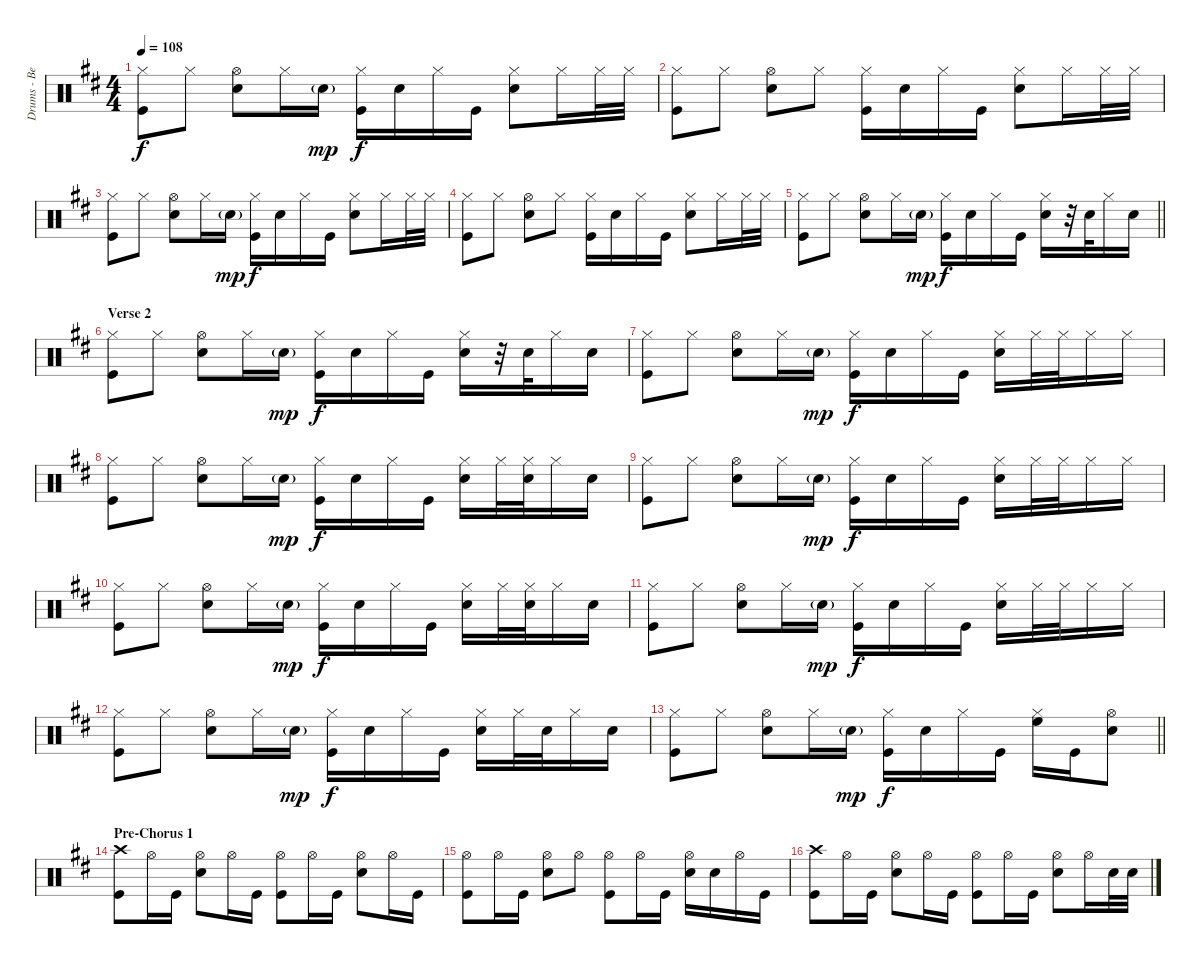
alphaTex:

\track ("Drums - Ben Johnston" "Drums - Be") {instrument percussion}
\staff {score}
\articulation defaults
\ts (4 4)
\tempo 108
\clef neutral
\ks d
("Hi-Hat (closed)" "Kick (hit)").8{dy f} "Hi-Hat (closed)".8 ("Hi-Hat (open)" "Snare (hit) 2").8 "Hi-Hat (closed)".16 "Snare (hit) 2"{g}.16{dy mp} ("Hi-Hat (closed)" "Kick (hit)").16{dy f} "Snare (hit) 2".16 "Hi-Hat (closed)".16 "Kick (hit)".16 ("Hi-Hat (closed)" "Snare (hit) 2").8 "Hi-Hat (closed)".16 "Hi-Hat (closed)".32 "Hi-Hat (closed)".32 |
("Hi-Hat (closed)" "Kick (hit)").8 "Hi-Hat (closed)".8 ("Hi-Hat (open)" "Snare (hit) 2").8 "Hi-Hat (closed)".8 ("Hi-Hat (closed)" "Kick (hit)").16 "Snare (hit) 2".16 "Hi-Hat (closed)".16 "Kick (hit)".16 ("Hi-Hat (closed)" "Snare (hit) 2").8 "Hi-Hat (closed)".16 "Hi-Hat (closed)".32 "Hi-Hat (closed)".32 |
("Hi-Hat (closed)" "Kick (hit)").8 "Hi-Hat (closed)".8 ("Hi-Hat (open)" "Snare (hit) 2").8 "Hi-Hat (closed)".16 "Snare (hit) 2"{g}.16{dy mp} ("Hi-Hat (closed)" "Kick (hit)").16{dy f} "Snare (hit) 2".16 "Hi-Hat (closed)".16 "Kick (hit)".16 ("Hi-Hat (closed)" "Snare (hit) 2").8 "Hi-Hat (closed)".16 "Hi-Hat (closed)".32 "Hi-Hat (closed)".32 |
("Hi-Hat (closed)" "Kick (hit)").8 "Hi-Hat (closed)".8 ("Hi-Hat (open)" "Snare (hit) 2").8 "Hi-Hat (closed)".8 ("Hi-Hat (closed)" "Kick (hit)").16 "Snare (hit) 2".16 "Hi-Hat (closed)".16 "Kick (hit)".16 ("Hi-Hat (closed)" "Snare (hit) 2").8 "Hi-Hat (closed)".16 "Hi-Hat (closed)".32 "Hi-Hat (closed)".32 |
\barLineRight lightlight
("Hi-Hat (closed)" "Kick (hit)").8 "Hi-Hat (closed)".8 ("Hi-Hat (open)" "Snare (hit) 2").8 "Hi-Hat (closed)".16 "Snare (hit) 2"{g}.16{dy mp} ("Hi-Hat (closed)" "Kick (hit)").16{dy f} "Snare (hit) 2".16 "Hi-Hat (closed)".16 "Kick (hit)".16 ("Hi-Hat (closed)" "Snare (hit) 2").16 r.32 "Snare (hit) 2".32 "Hi-Hat (closed)".16 "Snare (hit) 2".16 |
\section ("" "Verse 2")
("Hi-Hat (closed)" "Kick (hit)").8 "Hi-Hat (closed)".8 ("Hi-Hat (open)" "Snare (hit) 2").8 "Hi-Hat (closed)".16 "Snare (hit) 2"{g}.16{dy mp} ("Hi-Hat (closed)" "Kick (hit)").16{dy f} "Snare (hit) 2".16 "Hi-Hat (closed)".16 "Kick (hit)".16 ("Hi-Hat (closed)" "Snare (hit) 2").16 r.32 "Snare (hit) 2".32 "Hi-Hat (closed)".16 "Snare (hit) 2".16 |
("Hi-Hat (closed)" "Kick (hit)").8 "Hi-Hat (closed)".8 ("Hi-Hat (open)" "Snare (hit) 2").8 "Hi-Hat (closed)".16 "Snare (hit) 2"{g}.16{dy mp} ("Hi-Hat (closed)" "Kick (hit)").16{dy f} "Snare (hit) 2".16 "Hi-Hat (closed)".16 "Kick (hit)".16 ("Hi-Hat (closed)" "Snare (hit) 2").16 "Hi-Hat (closed)".32 "Hi-Hat (closed)".32 "Hi-Hat (closed)".16 "Hi-Hat (closed)".16 |
("Hi-Hat (closed)" "Kick (hit)").8 "Hi-Hat (closed)".8 ("Hi-Hat (open)" "Snare (hit) 2").8 "Hi-Hat (closed)".16 "Snare (hit) 2"{g}.16{dy mp} ("Hi-Hat (closed)" "Kick (hit)").16{dy f} "Snare (hit) 2".16 "Hi-Hat (closed)".16 "Kick (hit)".16 ("Hi-Hat (closed)" "Snare (hit) 2").16 "Hi-Hat (closed)".32 ("Hi-Hat (closed)" "Snare (hit) 2").32 "Hi-Hat (closed)".16 "Snare (hit) 2".16 |
("Hi-Hat (closed)" "Kick (hit)").8 "Hi-Hat (closed)".8 ("Hi-Hat (open)" "Snare (hit) 2").8 "Hi-Hat (closed)".16 "Snare (hit) 2"{g}.16{dy mp} ("Hi-Hat (closed)" "Kick (hit)").16{dy f} "Snare (hit) 2".16 "Hi-Hat (closed)".16 "Kick (hit)".16 ("Hi-Hat (closed)" "Snare (hit) 2").16 "Hi-Hat (closed)".32 "Hi-Hat (closed)".32 "Hi-Hat (closed)".16 "Hi-Hat (closed)".16 |
("Hi-Hat (closed)" "Kick (hit)").8 "Hi-Hat (closed)".8 ("Hi-Hat (open)" "Snare (hit) 2").8 "Hi-Hat (closed)".16 "Snare (hit) 2"{g}.16{dy mp} ("Hi-Hat (closed)" "Kick (hit)").16{dy f} "Snare (hit) 2".16 "Hi-Hat (closed)".16 "Kick (hit)".16 ("Hi-Hat (closed)" "Snare (hit) 2").16 "Hi-Hat (closed)".32 ("Hi-Hat (closed)" "Snare (hit) 2").32 "Hi-Hat (closed)".16 "Snare (hit) 2".16 |
("Hi-Hat (closed)" "Kick (hit)").8 "Hi-Hat (closed)".8 ("Hi-Hat (open)" "Snare (hit) 2").8 "Hi-Hat (closed)".16 "Snare (hit) 2"{g}.16{dy mp} ("Hi-Hat (closed)" "Kick (hit)").16{dy f} "Snare (hit) 2".16 "Hi-Hat (closed)".16 "Kick (hit)".16 ("Hi-Hat (closed)" "Snare (hit) 2").16 "Hi-Hat (closed)".32 "Hi-Hat (closed)".32 "Hi-Hat (closed)".16 "Hi-Hat (closed)".16 |
("Hi-Hat (closed)" "Kick (hit)").8 "Hi-Hat (closed)".8 ("Hi-Hat (open)" "Snare (hit) 2").8 "Hi-Hat (closed)".16 "Snare (hit) 2"{g}.16{dy mp} ("Hi-Hat (closed)" "Kick (hit)").16{dy f} "Snare (hit) 2".16 "Hi-Hat (closed)".16 "Kick (hit)".16 ("Hi-Hat (closed)" "Snare (hit) 2").16 "Hi-Hat (closed)".32 "Snare (hit) 2".32 "Hi-Hat (closed)".16 "Snare (hit) 2".16 |
\barLineRight lightlight
("Hi-Hat (closed)" "Kick (hit)").8 "Hi-Hat (closed)".8 ("Hi-Hat (open)" "Snare (hit) 2").8 "Hi-Hat (closed)".16 "Snare (hit) 2"{g}.16{dy mp} ("Hi-Hat (closed)" "Kick (hit)").16{dy f} "Snare (hit) 2".16 "Hi-Hat (closed)".16 "Kick (hit)".16 ("Hi-Hat (closed)" "High Floor Tom (hit)").16 "Kick (hit)".16 ("Hi-Hat (open)" "Snare (hit) 2").8 |
\section ("" "Pre-Chorus 1")
("Crash high (hit)" "Kick (hit)").8 "Hi-Hat (open)".16 "Kick (hit)".16 ("Hi-Hat (open)" "Snare (hit) 2").8 "Hi-Hat (open)".16 "Kick (hit)".16 ("Hi-Hat (open)" "Kick (hit)").8 "Hi-Hat (open)".16 "Kick (hit)".16 ("Hi-Hat (open)" "Snare (hit) 2").8 "Hi-Hat (open)".16 "Kick (hit)".16 |
("Hi-Hat (open)" "Kick (hit)").8 "Hi-Hat (open)".16 "Kick (hit)".16 ("Hi-Hat (open)" "Snare (hit) 2").8 "Hi-Hat (open)".8 ("Hi-Hat (open)" "Kick (hit)").8 "Hi-Hat (open)".16 "Kick (hit)".16 ("Hi-Hat (open)" "Snare (hit) 2").16 "Snare (hit) 2".16 "Hi-Hat (open)".16 "Kick (hit)".16 |
("Crash high (hit)" "Kick (hit)").8 "Hi-Hat (open)".16 "Kick (hit)".16 ("Hi-Hat (open)" "Snare (hit) 2").8 "Hi-Hat (open)".16 "Kick (hit)".16 ("Hi-Hat (open)" "Kick (hit)").8 "Hi-Hat (open)".16 "Kick (hit)".16 ("Hi-Hat (open)" "Snare (hit) 2").8 "Hi-Hat (open)".16 "Snare (hit) 2".32 "Snare (hit) 2".32
